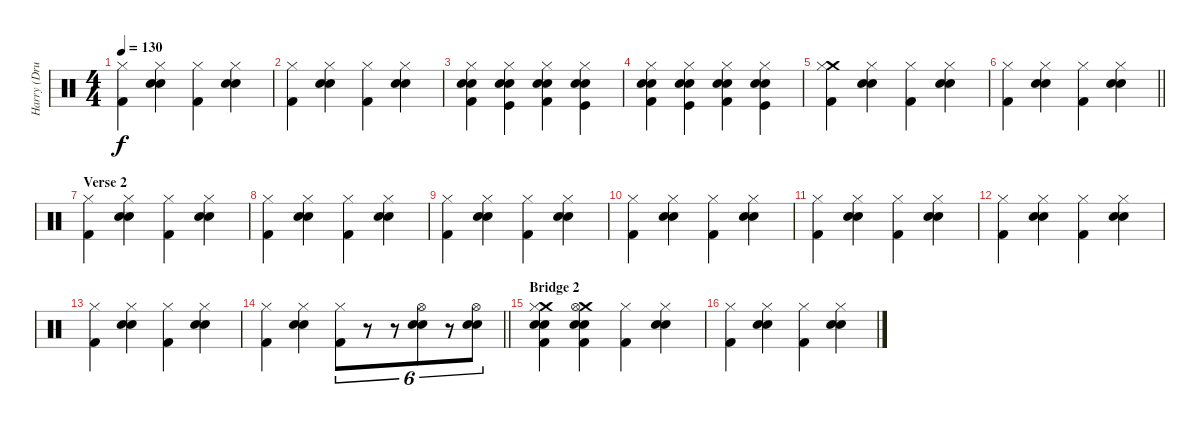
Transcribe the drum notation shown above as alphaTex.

\track ("Harry (Drums)" "Harry (Dru") {instrument percussion}
\staff {score}
\articulation defaults
\ts (4 4)
\tempo 130
\clef neutral
\ks c
("Hi-Hat (closed)" "Kick (hit) 2").4{dy f} ("Hi-Hat (closed)" "Snare (hit) 2" "Electric Snare (hit)").4 ("Hi-Hat (closed)" "Kick (hit) 2").4 ("Hi-Hat (closed)" "Snare (hit) 2" "Electric Snare (hit)").4 |
("Hi-Hat (closed)" "Kick (hit) 2").4 ("Hi-Hat (closed)" "Snare (hit) 2" "Electric Snare (hit)").4 ("Hi-Hat (closed)" "Kick (hit) 2").4 ("Hi-Hat (closed)" "Snare (hit) 2" "Electric Snare (hit)").4 |
("Hi-Hat (closed)" "Electric Snare (hit)" "Snare (hit) 2" "Kick (hit) 2").4 ("Hi-Hat (closed)" "Kick (hit)" "Snare (hit) 2" "Electric Snare (hit)").4 ("Hi-Hat (closed)" "Electric Snare (hit)" "Snare (hit) 2" "Kick (hit) 2").4 ("Hi-Hat (closed)" "Kick (hit)" "Snare (hit) 2" "Electric Snare (hit)").4 |
("Hi-Hat (closed)" "Electric Snare (hit)" "Snare (hit) 2" "Kick (hit) 2").4 ("Hi-Hat (closed)" "Kick (hit)" "Snare (hit) 2" "Electric Snare (hit)").4 ("Hi-Hat (closed)" "Electric Snare (hit)" "Snare (hit) 2" "Kick (hit) 2").4 ("Hi-Hat (closed)" "Kick (hit)" "Snare (hit) 2" "Electric Snare (hit)").4 |
("Crash medium (hit)" "Hi-Hat (closed)" "Kick (hit) 2").4{volume 12} ("Hi-Hat (closed)" "Snare (hit) 2" "Electric Snare (hit)").4 ("Hi-Hat (closed)" "Kick (hit) 2").4 ("Hi-Hat (closed)" "Snare (hit) 2" "Electric Snare (hit)").4 |
\barLineRight lightlight
("Hi-Hat (closed)" "Kick (hit) 2").4 ("Hi-Hat (closed)" "Snare (hit) 2" "Electric Snare (hit)").4 ("Hi-Hat (closed)" "Kick (hit) 2").4 ("Hi-Hat (closed)" "Snare (hit) 2" "Electric Snare (hit)").4 |
\section ("" "Verse 2")
("Hi-Hat (closed)" "Kick (hit) 2").4 ("Hi-Hat (closed)" "Snare (hit) 2" "Electric Snare (hit)").4 ("Hi-Hat (closed)" "Kick (hit) 2").4 ("Hi-Hat (closed)" "Snare (hit) 2" "Electric Snare (hit)").4 |
("Hi-Hat (closed)" "Kick (hit) 2").4 ("Hi-Hat (closed)" "Snare (hit) 2" "Electric Snare (hit)").4 ("Hi-Hat (closed)" "Kick (hit) 2").4 ("Hi-Hat (closed)" "Snare (hit) 2" "Electric Snare (hit)").4 |
("Hi-Hat (closed)" "Kick (hit) 2").4 ("Hi-Hat (closed)" "Snare (hit) 2" "Electric Snare (hit)").4 ("Hi-Hat (closed)" "Kick (hit) 2").4 ("Hi-Hat (closed)" "Snare (hit) 2" "Electric Snare (hit)").4 |
("Hi-Hat (closed)" "Kick (hit) 2").4 ("Hi-Hat (closed)" "Snare (hit) 2" "Electric Snare (hit)").4 ("Hi-Hat (closed)" "Kick (hit) 2").4 ("Hi-Hat (closed)" "Snare (hit) 2" "Electric Snare (hit)").4 |
("Hi-Hat (closed)" "Kick (hit) 2").4 ("Hi-Hat (closed)" "Snare (hit) 2" "Electric Snare (hit)").4 ("Hi-Hat (closed)" "Kick (hit) 2").4 ("Hi-Hat (closed)" "Snare (hit) 2" "Electric Snare (hit)").4 |
("Hi-Hat (closed)" "Kick (hit) 2").4 ("Hi-Hat (closed)" "Snare (hit) 2" "Electric Snare (hit)").4 ("Hi-Hat (closed)" "Kick (hit) 2").4 ("Hi-Hat (closed)" "Snare (hit) 2" "Electric Snare (hit)").4 |
("Hi-Hat (closed)" "Kick (hit) 2").4 ("Hi-Hat (closed)" "Snare (hit) 2" "Electric Snare (hit)").4 ("Hi-Hat (closed)" "Kick (hit) 2").4 ("Hi-Hat (closed)" "Snare (hit) 2" "Electric Snare (hit)").4 |
\barLineRight lightlight
("Hi-Hat (closed)" "Kick (hit) 2").4 ("Hi-Hat (closed)" "Snare (hit) 2" "Electric Snare (hit)").4 ("Hi-Hat (closed)" "Kick (hit) 2").8{tu (6 4)} r.8{tu (6 4)} r.8{tu (6 4)} ("Hi-Hat (open)" "Snare (hit) 2" "Electric Snare (hit)").8{tu (6 4)} r.8{tu (6 4)} ("Hi-Hat (open)" "Snare (hit) 2" "Electric Snare (hit)").8{tu (6 4)} |
\section ("" "Bridge 2")
("Crash medium (hit)" "Hi-Hat (closed)" "Snare (hit) 2" "Kick (hit) 2" "Electric Snare (hit)").4 ("Crash medium (hit)" "Hi-Hat (open)" "Kick (hit) 2" "Snare (hit) 2" "Electric Snare (hit)").4 ("Hi-Hat (closed)" "Kick (hit) 2").4 ("Hi-Hat (closed)" "Snare (hit) 2" "Electric Snare (hit)").4 |
("Hi-Hat (closed)" "Kick (hit) 2").4 ("Hi-Hat (closed)" "Snare (hit) 2" "Electric Snare (hit)").4 ("Hi-Hat (closed)" "Kick (hit) 2").4 ("Hi-Hat (closed)" "Snare (hit) 2" "Electric Snare (hit)").4
